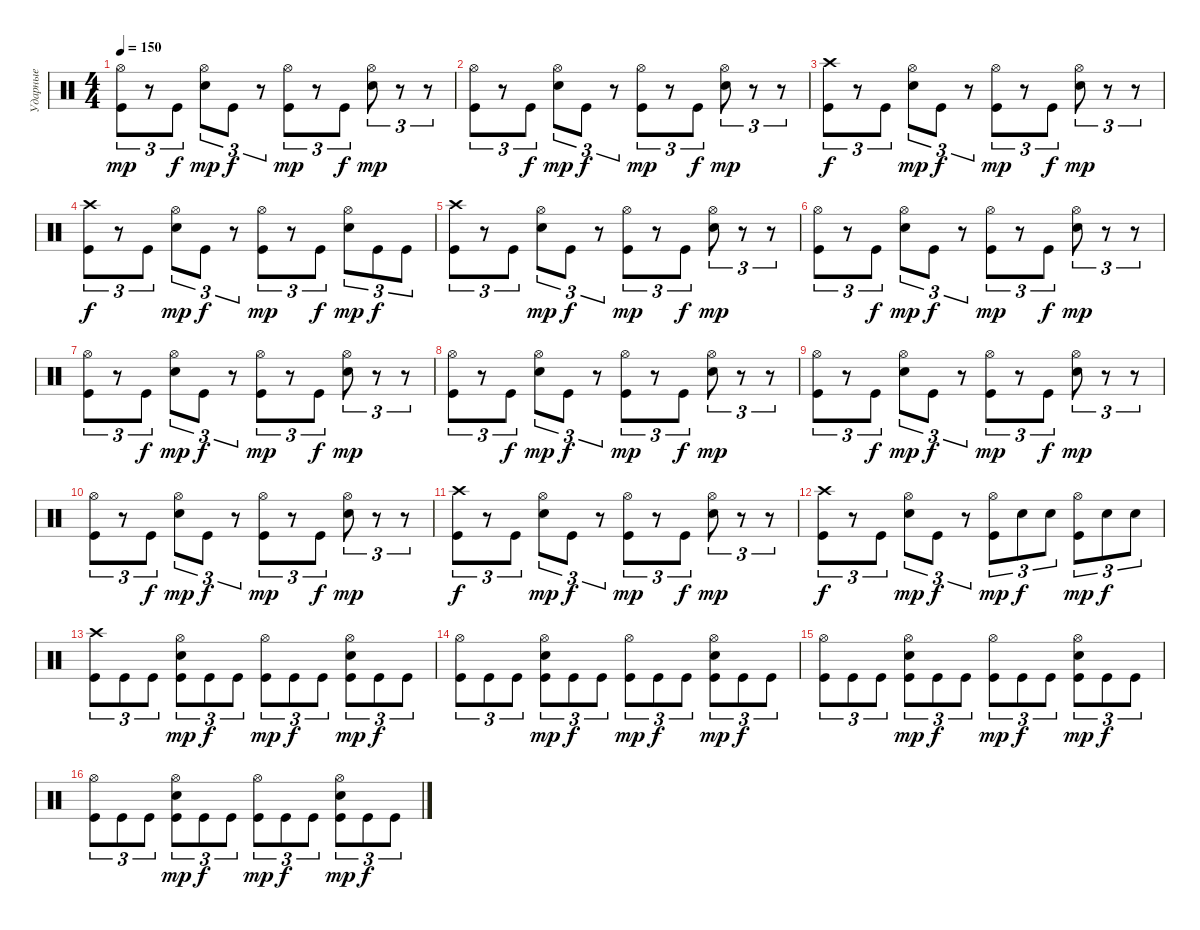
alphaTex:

\track ("Ударные" "Ударные") {instrument percussion}
\staff {score}
\articulation defaults
\ts (4 4)
\tempo 150
\clef neutral
\ks c
("Hi-Hat (open)" "Kick (hit)").8{tu (3 2) dy mp} r.8{tu (3 2)} "Kick (hit)".8{tu (3 2) dy f} ("Hi-Hat (open)" "Snare (hit) 2").8{tu (3 2) dy mp} "Kick (hit)".8{tu (3 2) dy f} r.8{tu (3 2)} ("Hi-Hat (open)" "Kick (hit)").8{tu (3 2) dy mp} r.8{tu (3 2)} "Kick (hit)".8{tu (3 2) dy f} ("Hi-Hat (open)" "Snare (hit) 2").8{tu (3 2) dy mp} r.8{tu (3 2)} r.8{tu (3 2)} |
("Hi-Hat (open)" "Kick (hit)").8{tu (3 2)} r.8{tu (3 2)} "Kick (hit)".8{tu (3 2) dy f} ("Hi-Hat (open)" "Snare (hit) 2").8{tu (3 2) dy mp} "Kick (hit)".8{tu (3 2) dy f} r.8{tu (3 2)} ("Hi-Hat (open)" "Kick (hit)").8{tu (3 2) dy mp} r.8{tu (3 2)} "Kick (hit)".8{tu (3 2) dy f} ("Hi-Hat (open)" "Snare (hit) 2").8{tu (3 2) dy mp} r.8{tu (3 2)} r.8{tu (3 2)} |
("Crash high (hit)" "Kick (hit)").8{tu (3 2) dy f} r.8{tu (3 2)} "Kick (hit)".8{tu (3 2)} ("Hi-Hat (open)" "Snare (hit) 2").8{tu (3 2) dy mp} "Kick (hit)".8{tu (3 2) dy f} r.8{tu (3 2)} ("Hi-Hat (open)" "Kick (hit)").8{tu (3 2) dy mp} r.8{tu (3 2)} "Kick (hit)".8{tu (3 2) dy f} ("Hi-Hat (open)" "Snare (hit) 2").8{tu (3 2) dy mp} r.8{tu (3 2)} r.8{tu (3 2)} |
("Crash high (hit)" "Kick (hit)").8{tu (3 2) dy f} r.8{tu (3 2)} "Kick (hit)".8{tu (3 2)} ("Hi-Hat (open)" "Snare (hit) 2").8{tu (3 2) dy mp} "Kick (hit)".8{tu (3 2) dy f} r.8{tu (3 2)} ("Hi-Hat (open)" "Kick (hit)").8{tu (3 2) dy mp} r.8{tu (3 2)} "Kick (hit)".8{tu (3 2) dy f} ("Hi-Hat (open)" "Snare (hit) 2").8{tu (3 2) dy mp} "Kick (hit)".8{tu (3 2) dy f} "Kick (hit)".8{tu (3 2)} |
("Crash high (hit)" "Kick (hit)").8{tu (3 2)} r.8{tu (3 2)} "Kick (hit)".8{tu (3 2)} ("Hi-Hat (open)" "Snare (hit) 2").8{tu (3 2) dy mp} "Kick (hit)".8{tu (3 2) dy f} r.8{tu (3 2)} ("Hi-Hat (open)" "Kick (hit)").8{tu (3 2) dy mp} r.8{tu (3 2)} "Kick (hit)".8{tu (3 2) dy f} ("Hi-Hat (open)" "Snare (hit) 2").8{tu (3 2) dy mp} r.8{tu (3 2)} r.8{tu (3 2)} |
("Hi-Hat (open)" "Kick (hit)").8{tu (3 2)} r.8{tu (3 2)} "Kick (hit)".8{tu (3 2) dy f} ("Hi-Hat (open)" "Snare (hit) 2").8{tu (3 2) dy mp} "Kick (hit)".8{tu (3 2) dy f} r.8{tu (3 2)} ("Hi-Hat (open)" "Kick (hit)").8{tu (3 2) dy mp} r.8{tu (3 2)} "Kick (hit)".8{tu (3 2) dy f} ("Hi-Hat (open)" "Snare (hit) 2").8{tu (3 2) dy mp} r.8{tu (3 2)} r.8{tu (3 2)} |
("Hi-Hat (open)" "Kick (hit)").8{tu (3 2)} r.8{tu (3 2)} "Kick (hit)".8{tu (3 2) dy f} ("Hi-Hat (open)" "Snare (hit) 2").8{tu (3 2) dy mp} "Kick (hit)".8{tu (3 2) dy f} r.8{tu (3 2)} ("Hi-Hat (open)" "Kick (hit)").8{tu (3 2) dy mp} r.8{tu (3 2)} "Kick (hit)".8{tu (3 2) dy f} ("Hi-Hat (open)" "Snare (hit) 2").8{tu (3 2) dy mp} r.8{tu (3 2)} r.8{tu (3 2)} |
("Hi-Hat (open)" "Kick (hit)").8{tu (3 2)} r.8{tu (3 2)} "Kick (hit)".8{tu (3 2) dy f} ("Hi-Hat (open)" "Snare (hit) 2").8{tu (3 2) dy mp} "Kick (hit)".8{tu (3 2) dy f} r.8{tu (3 2)} ("Hi-Hat (open)" "Kick (hit)").8{tu (3 2) dy mp} r.8{tu (3 2)} "Kick (hit)".8{tu (3 2) dy f} ("Hi-Hat (open)" "Snare (hit) 2").8{tu (3 2) dy mp} r.8{tu (3 2)} r.8{tu (3 2)} |
("Hi-Hat (open)" "Kick (hit)").8{tu (3 2)} r.8{tu (3 2)} "Kick (hit)".8{tu (3 2) dy f} ("Hi-Hat (open)" "Snare (hit) 2").8{tu (3 2) dy mp} "Kick (hit)".8{tu (3 2) dy f} r.8{tu (3 2)} ("Hi-Hat (open)" "Kick (hit)").8{tu (3 2) dy mp} r.8{tu (3 2)} "Kick (hit)".8{tu (3 2) dy f} ("Hi-Hat (open)" "Snare (hit) 2").8{tu (3 2) dy mp} r.8{tu (3 2)} r.8{tu (3 2)} |
("Hi-Hat (open)" "Kick (hit)").8{tu (3 2)} r.8{tu (3 2)} "Kick (hit)".8{tu (3 2) dy f} ("Hi-Hat (open)" "Snare (hit) 2").8{tu (3 2) dy mp} "Kick (hit)".8{tu (3 2) dy f} r.8{tu (3 2)} ("Hi-Hat (open)" "Kick (hit)").8{tu (3 2) dy mp} r.8{tu (3 2)} "Kick (hit)".8{tu (3 2) dy f} ("Hi-Hat (open)" "Snare (hit) 2").8{tu (3 2) dy mp} r.8{tu (3 2)} r.8{tu (3 2)} |
("Crash high (hit)" "Kick (hit)").8{tu (3 2) dy f} r.8{tu (3 2)} "Kick (hit)".8{tu (3 2)} ("Hi-Hat (open)" "Snare (hit) 2").8{tu (3 2) dy mp} "Kick (hit)".8{tu (3 2) dy f} r.8{tu (3 2)} ("Hi-Hat (open)" "Kick (hit)").8{tu (3 2) dy mp} r.8{tu (3 2)} "Kick (hit)".8{tu (3 2) dy f} ("Hi-Hat (open)" "Snare (hit) 2").8{tu (3 2) dy mp} r.8{tu (3 2)} r.8{tu (3 2)} |
("Crash high (hit)" "Kick (hit)").8{tu (3 2) dy f} r.8{tu (3 2)} "Kick (hit)".8{tu (3 2)} ("Hi-Hat (open)" "Snare (hit) 2").8{tu (3 2) dy mp} "Kick (hit)".8{tu (3 2) dy f} r.8{tu (3 2)} ("Hi-Hat (open)" "Kick (hit)").8{tu (3 2) dy mp} "Snare (hit) 2".8{tu (3 2) dy f} "Snare (hit) 2".8{tu (3 2)} ("Hi-Hat (open)" "Kick (hit)").8{tu (3 2) dy mp} "Snare (hit) 2".8{tu (3 2) dy f} "Snare (hit) 2".8{tu (3 2)} |
("Crash high (hit)" "Kick (hit)").8{tu (3 2)} "Kick (hit)".8{tu (3 2)} "Kick (hit)".8{tu (3 2)} ("Hi-Hat (open)" "Snare (hit) 2" "Kick (hit)").8{tu (3 2) dy mp} "Kick (hit)".8{tu (3 2) dy f} "Kick (hit)".8{tu (3 2)} ("Hi-Hat (open)" "Kick (hit)").8{tu (3 2) dy mp} "Kick (hit)".8{tu (3 2) dy f} "Kick (hit)".8{tu (3 2)} ("Hi-Hat (open)" "Snare (hit) 2" "Kick (hit)").8{tu (3 2) dy mp} "Kick (hit)".8{tu (3 2) dy f} "Kick (hit)".8{tu (3 2)} |
("Hi-Hat (open)" "Kick (hit)").8{tu (3 2)} "Kick (hit)".8{tu (3 2)} "Kick (hit)".8{tu (3 2)} ("Hi-Hat (open)" "Snare (hit) 2" "Kick (hit)").8{tu (3 2) dy mp} "Kick (hit)".8{tu (3 2) dy f} "Kick (hit)".8{tu (3 2)} ("Hi-Hat (open)" "Kick (hit)").8{tu (3 2) dy mp} "Kick (hit)".8{tu (3 2) dy f} "Kick (hit)".8{tu (3 2)} ("Hi-Hat (open)" "Snare (hit) 2" "Kick (hit)").8{tu (3 2) dy mp} "Kick (hit)".8{tu (3 2) dy f} "Kick (hit)".8{tu (3 2)} |
("Hi-Hat (open)" "Kick (hit)").8{tu (3 2)} "Kick (hit)".8{tu (3 2)} "Kick (hit)".8{tu (3 2)} ("Hi-Hat (open)" "Snare (hit) 2" "Kick (hit)").8{tu (3 2) dy mp} "Kick (hit)".8{tu (3 2) dy f} "Kick (hit)".8{tu (3 2)} ("Hi-Hat (open)" "Kick (hit)").8{tu (3 2) dy mp} "Kick (hit)".8{tu (3 2) dy f} "Kick (hit)".8{tu (3 2)} ("Hi-Hat (open)" "Snare (hit) 2" "Kick (hit)").8{tu (3 2) dy mp} "Kick (hit)".8{tu (3 2) dy f} "Kick (hit)".8{tu (3 2)} |
("Hi-Hat (open)" "Kick (hit)").8{tu (3 2)} "Kick (hit)".8{tu (3 2)} "Kick (hit)".8{tu (3 2)} ("Hi-Hat (open)" "Snare (hit) 2" "Kick (hit)").8{tu (3 2) dy mp} "Kick (hit)".8{tu (3 2) dy f} "Kick (hit)".8{tu (3 2)} ("Hi-Hat (open)" "Kick (hit)").8{tu (3 2) dy mp} "Kick (hit)".8{tu (3 2) dy f} "Kick (hit)".8{tu (3 2)} ("Hi-Hat (open)" "Snare (hit) 2" "Kick (hit)").8{tu (3 2) dy mp} "Kick (hit)".8{tu (3 2) dy f} "Kick (hit)".8{tu (3 2)}
